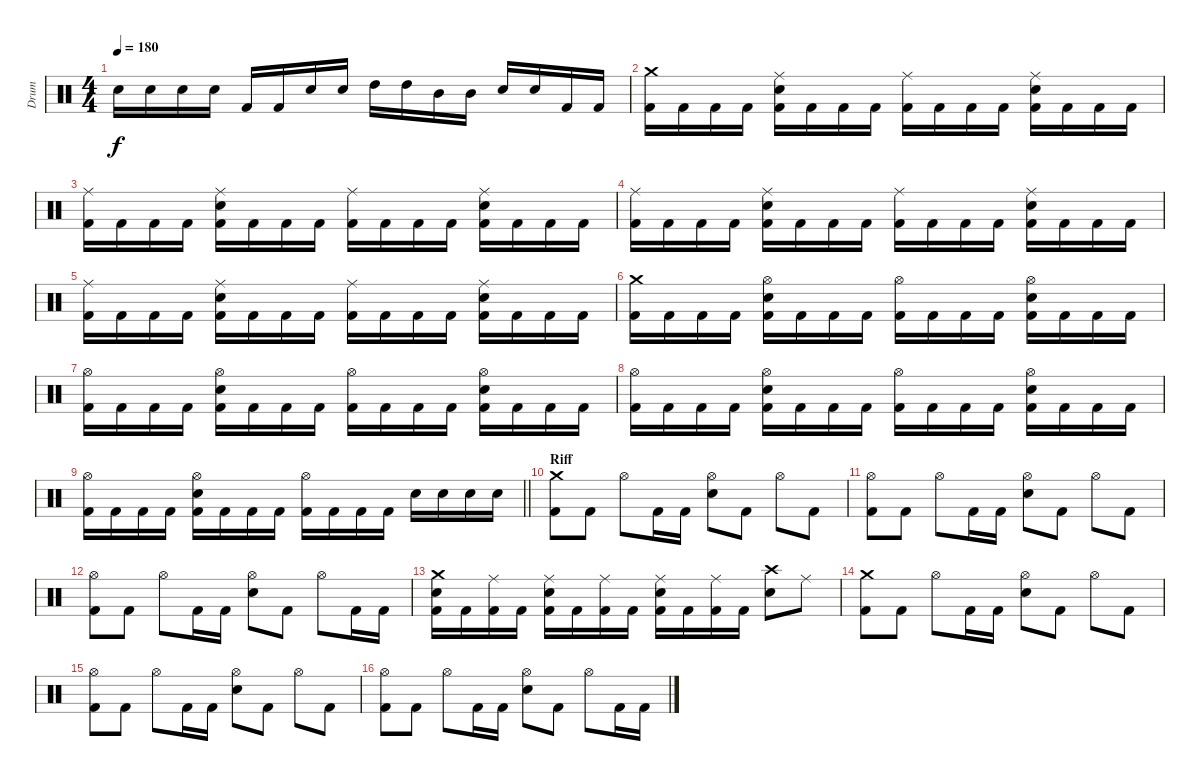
\track ("Drum" "Drum") {instrument percussion}
\staff {score}
\articulation defaults
\ts (4 4)
\tempo 180
\clef neutral
\ks c "Electric Snare (hit)".16{dy f} "Electric Snare (hit)".16 "Electric Snare (hit)".16 "Electric Snare (hit)".16 "Kick (hit) 2".16 "Kick (hit) 2".16 "Electric Snare (hit)".16 "Electric Snare (hit)".16 "High Tom (hit)".16 "High Tom (hit)".16 "Mid Tom (hit)".16 "Mid Tom (hit)".16 "Electric Snare (hit)".16 "Electric Snare (hit)".16 "Kick (hit) 2".16 "Kick (hit) 2".16
|
("Crash medium (hit)" "Kick (hit) 2").16 "Kick (hit) 2".16 "Kick (hit) 2".16 "Kick (hit) 2".16 ("Ride (middle)" "Electric Snare (hit)" "Kick (hit) 2").16 "Kick (hit) 2".16 "Kick (hit) 2".16 "Kick (hit) 2".16 ("Ride (middle)" "Kick (hit) 2").16 "Kick (hit) 2".16 "Kick (hit) 2".16 "Kick (hit) 2".16 ("Ride (middle)" "Electric Snare (hit)" "Kick (hit) 2").16 "Kick (hit) 2".16 "Kick (hit) 2".16 "Kick (hit) 2".16 |
("Ride (middle)" "Kick (hit) 2").16 "Kick (hit) 2".16 "Kick (hit) 2".16 "Kick (hit) 2".16 ("Ride (middle)" "Electric Snare (hit)" "Kick (hit) 2").16 "Kick (hit) 2".16 "Kick (hit) 2".16 "Kick (hit) 2".16 ("Ride (middle)" "Kick (hit) 2").16 "Kick (hit) 2".16 "Kick (hit) 2".16 "Kick (hit) 2".16 ("Ride (middle)" "Electric Snare (hit)" "Kick (hit) 2").16 "Kick (hit) 2".16 "Kick (hit) 2".16 "Kick (hit) 2".16 |
("Ride (middle)" "Kick (hit) 2").16 "Kick (hit) 2".16 "Kick (hit) 2".16 "Kick (hit) 2".16 ("Ride (middle)" "Electric Snare (hit)" "Kick (hit) 2").16 "Kick (hit) 2".16 "Kick (hit) 2".16 "Kick (hit) 2".16 ("Ride (middle)" "Kick (hit) 2").16 "Kick (hit) 2".16 "Kick (hit) 2".16 "Kick (hit) 2".16 ("Ride (middle)" "Electric Snare (hit)" "Kick (hit) 2").16 "Kick (hit) 2".16 "Kick (hit) 2".16 "Kick (hit) 2".16 |
("Ride (middle)" "Kick (hit) 2").16 "Kick (hit) 2".16 "Kick (hit) 2".16 "Kick (hit) 2".16 ("Ride (middle)" "Electric Snare (hit)" "Kick (hit) 2").16 "Kick (hit) 2".16 "Kick (hit) 2".16 "Kick (hit) 2".16 ("Ride (middle)" "Kick (hit) 2").16 "Kick (hit) 2".16 "Kick (hit) 2".16 "Kick (hit) 2".16 ("Ride (middle)" "Electric Snare (hit)" "Kick (hit) 2").16 "Kick (hit) 2".16 "Kick (hit) 2".16 "Kick (hit) 2".16 |
("Crash medium (hit)" "Kick (hit) 2").16 "Kick (hit) 2".16 "Kick (hit) 2".16 "Kick (hit) 2".16 ("Hi-Hat (open)" "Electric Snare (hit)" "Kick (hit) 2").16 "Kick (hit) 2".16 "Kick (hit) 2".16 "Kick (hit) 2".16 ("Hi-Hat (open)" "Kick (hit) 2").16 "Kick (hit) 2".16 "Kick (hit) 2".16 "Kick (hit) 2".16 ("Hi-Hat (open)" "Electric Snare (hit)" "Kick (hit) 2").16 "Kick (hit) 2".16 "Kick (hit) 2".16 "Kick (hit) 2".16 |
("Hi-Hat (open)" "Kick (hit) 2").16 "Kick (hit) 2".16 "Kick (hit) 2".16 "Kick (hit) 2".16 ("Hi-Hat (open)" "Electric Snare (hit)" "Kick (hit) 2").16 "Kick (hit) 2".16 "Kick (hit) 2".16 "Kick (hit) 2".16 ("Hi-Hat (open)" "Kick (hit) 2").16 "Kick (hit) 2".16 "Kick (hit) 2".16 "Kick (hit) 2".16 ("Hi-Hat (open)" "Electric Snare (hit)" "Kick (hit) 2").16 "Kick (hit) 2".16 "Kick (hit) 2".16 "Kick (hit) 2".16 |
("Hi-Hat (open)" "Kick (hit) 2").16 "Kick (hit) 2".16 "Kick (hit) 2".16 "Kick (hit) 2".16 ("Hi-Hat (open)" "Electric Snare (hit)" "Kick (hit) 2").16 "Kick (hit) 2".16 "Kick (hit) 2".16 "Kick (hit) 2".16 ("Hi-Hat (open)" "Kick (hit) 2").16 "Kick (hit) 2".16 "Kick (hit) 2".16 "Kick (hit) 2".16 ("Hi-Hat (open)" "Electric Snare (hit)" "Kick (hit) 2").16 "Kick (hit) 2".16 "Kick (hit) 2".16 "Kick (hit) 2".16 |
\barLineRight lightlight
("Hi-Hat (open)" "Kick (hit) 2").16 "Kick (hit) 2".16 "Kick (hit) 2".16 "Kick (hit) 2".16 ("Hi-Hat (open)" "Electric Snare (hit)" "Kick (hit) 2").16 "Kick (hit) 2".16 "Kick (hit) 2".16 "Kick (hit) 2".16 ("Hi-Hat (open)" "Kick (hit) 2").16 "Kick (hit) 2".16 "Kick (hit) 2".16 "Kick (hit) 2".16 "Electric Snare (hit)".16 "Electric Snare (hit)".16 "Electric Snare (hit)".16 "Electric Snare (hit)".16 |
\section ("" "Riff")
("Crash medium (hit)" "Kick (hit) 2").8 "Kick (hit) 2".8 "Hi-Hat (open)".8 "Kick (hit) 2".16 "Kick (hit) 2".16 ("Hi-Hat (open)" "Electric Snare (hit)").8 "Kick (hit) 2".8 "Hi-Hat (open)".8 "Kick (hit) 2".8 |
("Hi-Hat (open)" "Kick (hit) 2").8 "Kick (hit) 2".8 "Hi-Hat (open)".8 "Kick (hit) 2".16 "Kick (hit) 2".16 ("Hi-Hat (open)" "Electric Snare (hit)").8 "Kick (hit) 2".8 "Hi-Hat (open)".8 "Kick (hit) 2".8 |
("Hi-Hat (open)" "Kick (hit) 2").8 "Kick (hit) 2".8 "Hi-Hat (open)".8 "Kick (hit) 2".16 "Kick (hit) 2".16 ("Hi-Hat (open)" "Electric Snare (hit)").8 "Kick (hit) 2".8 "Hi-Hat (open)".8 "Kick (hit) 2".16 "Kick (hit) 2".16 |
("Crash medium (hit)" "Electric Snare (hit)" "Kick (hit) 2").16 "Kick (hit) 2".16 ("Ride (middle)" "Kick (hit) 2").16 "Kick (hit) 2".16 ("Ride (middle)" "Electric Snare (hit)" "Kick (hit) 2").16 "Kick (hit) 2".16 ("Ride (middle)" "Kick (hit) 2").16 "Kick (hit) 2".16 ("Ride (middle)" "Electric Snare (hit)" "Kick (hit) 2").16 "Kick (hit) 2".16 ("Ride (middle)" "Kick (hit) 2").16 "Kick (hit) 2".16 ("Crash high (hit)" "Electric Snare (hit)").8 "Ride (middle)".8 |
("Crash medium (hit)" "Kick (hit) 2").8 "Kick (hit) 2".8 "Hi-Hat (open)".8 "Kick (hit) 2".16 "Kick (hit) 2".16 ("Hi-Hat (open)" "Electric Snare (hit)").8 "Kick (hit) 2".8 "Hi-Hat (open)".8 "Kick (hit) 2".8 |
("Hi-Hat (open)" "Kick (hit) 2").8 "Kick (hit) 2".8 "Hi-Hat (open)".8 "Kick (hit) 2".16 "Kick (hit) 2".16 ("Hi-Hat (open)" "Electric Snare (hit)").8 "Kick (hit) 2".8 "Hi-Hat (open)".8 "Kick (hit) 2".8 |
("Hi-Hat (open)" "Kick (hit) 2").8 "Kick (hit) 2".8 "Hi-Hat (open)".8 "Kick (hit) 2".16 "Kick (hit) 2".16 ("Hi-Hat (open)" "Electric Snare (hit)").8 "Kick (hit) 2".8 "Hi-Hat (open)".8 "Kick (hit) 2".16 "Kick (hit) 2".16
